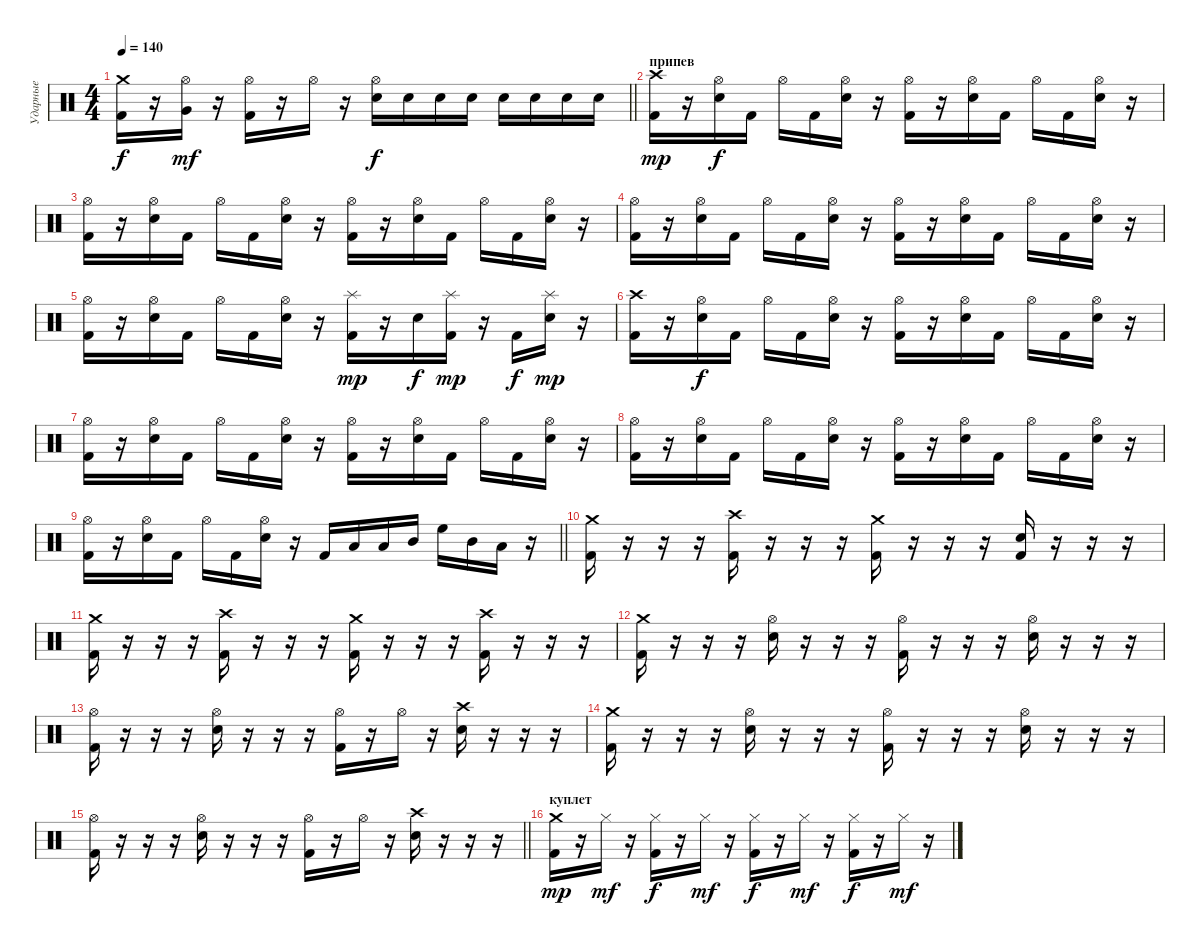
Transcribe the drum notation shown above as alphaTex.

\track ("Ударные" "Ударные") {instrument percussion}
\staff {score}
\articulation defaults
\ts (4 4)
\tempo 140
\clef neutral
\barLineRight lightlight
\ks c
("Crash medium (hit)" "Kick (hit) 2").16{dy f} r.16 ("Hi-Hat (open)" "Very Low Tom (hit)").16{dy mf} r.16 ("Hi-Hat (open)" "Kick (hit) 2").16 r.16 "Hi-Hat (open)".16 r.16 ("Hi-Hat (open)" "Electric Snare (hit)").16{dy f} "Electric Snare (hit)".16 "Electric Snare (hit)".16 "Electric Snare (hit)".16 "Electric Snare (hit)".16 "Electric Snare (hit)".16 "Electric Snare (hit)".16 "Electric Snare (hit)".16 |
\section ("" "припев")
("Crash high (hit)" "Kick (hit) 2").16{dy mp} r.16 ("Hi-Hat (open)" "Electric Snare (hit)").16{dy f} "Kick (hit) 2".16 "Hi-Hat (open)".16 "Kick (hit) 2".16 ("Hi-Hat (open)" "Electric Snare (hit)").16 r.16 ("Hi-Hat (open)" "Kick (hit) 2").16 r.16 ("Hi-Hat (open)" "Electric Snare (hit)").16 "Kick (hit) 2".16 "Hi-Hat (open)".16 "Kick (hit) 2".16 ("Hi-Hat (open)" "Electric Snare (hit)").16 r.16 |
("Hi-Hat (open)" "Kick (hit) 2").16 r.16 ("Hi-Hat (open)" "Electric Snare (hit)").16 "Kick (hit) 2".16 "Hi-Hat (open)".16 "Kick (hit) 2".16 ("Hi-Hat (open)" "Electric Snare (hit)").16 r.16 ("Hi-Hat (open)" "Kick (hit) 2").16 r.16 ("Hi-Hat (open)" "Electric Snare (hit)").16 "Kick (hit) 2".16 "Hi-Hat (open)".16 "Kick (hit) 2".16 ("Hi-Hat (open)" "Electric Snare (hit)").16 r.16 |
("Hi-Hat (open)" "Kick (hit) 2").16 r.16 ("Hi-Hat (open)" "Electric Snare (hit)").16 "Kick (hit) 2".16 "Hi-Hat (open)".16 "Kick (hit) 2".16 ("Hi-Hat (open)" "Electric Snare (hit)").16 r.16 ("Hi-Hat (open)" "Kick (hit) 2").16 r.16 ("Hi-Hat (open)" "Electric Snare (hit)").16 "Kick (hit) 2".16 "Hi-Hat (open)".16 "Kick (hit) 2".16 ("Hi-Hat (open)" "Electric Snare (hit)").16 r.16 |
("Hi-Hat (open)" "Kick (hit) 2").16 r.16 ("Hi-Hat (open)" "Electric Snare (hit)").16 "Kick (hit) 2".16 "Hi-Hat (open)".16 "Kick (hit) 2".16 ("Hi-Hat (open)" "Electric Snare (hit)").16 r.16 ("Splash (hit)" "Kick (hit) 2").16{dy mp} r.16 "Electric Snare (hit)".16{dy f} ("Splash (hit)" "Kick (hit) 2").16{dy mp} r.16 "Kick (hit) 2".16{dy f} ("Splash (hit)" "Electric Snare (hit)").16{dy mp} r.16 |
("Crash high (hit)" "Kick (hit) 2").16 r.16 ("Hi-Hat (open)" "Electric Snare (hit)").16{dy f} "Kick (hit) 2".16 "Hi-Hat (open)".16 "Kick (hit) 2".16 ("Hi-Hat (open)" "Electric Snare (hit)").16 r.16 ("Hi-Hat (open)" "Kick (hit) 2").16 r.16 ("Hi-Hat (open)" "Electric Snare (hit)").16 "Kick (hit) 2".16 "Hi-Hat (open)".16 "Kick (hit) 2".16 ("Hi-Hat (open)" "Electric Snare (hit)").16 r.16 |
("Hi-Hat (open)" "Kick (hit) 2").16 r.16 ("Hi-Hat (open)" "Electric Snare (hit)").16 "Kick (hit) 2".16 "Hi-Hat (open)".16 "Kick (hit) 2".16 ("Hi-Hat (open)" "Electric Snare (hit)").16 r.16 ("Hi-Hat (open)" "Kick (hit) 2").16 r.16 ("Hi-Hat (open)" "Electric Snare (hit)").16 "Kick (hit) 2".16 "Hi-Hat (open)".16 "Kick (hit) 2".16 ("Hi-Hat (open)" "Electric Snare (hit)").16 r.16 |
("Hi-Hat (open)" "Kick (hit) 2").16 r.16 ("Hi-Hat (open)" "Electric Snare (hit)").16 "Kick (hit) 2".16 "Hi-Hat (open)".16 "Kick (hit) 2".16 ("Hi-Hat (open)" "Electric Snare (hit)").16 r.16 ("Hi-Hat (open)" "Kick (hit) 2").16 r.16 ("Hi-Hat (open)" "Electric Snare (hit)").16 "Kick (hit) 2".16 "Hi-Hat (open)".16 "Kick (hit) 2".16 ("Hi-Hat (open)" "Electric Snare (hit)").16 r.16 |
\barLineRight lightlight
("Hi-Hat (open)" "Kick (hit) 2").16 r.16 ("Hi-Hat (open)" "Electric Snare (hit)").16 "Kick (hit) 2".16 "Hi-Hat (open)".16 "Kick (hit) 2".16 ("Hi-Hat (open)" "Electric Snare (hit)").16 r.16 "Kick (hit) 2".16 "Low Tom (hit)".16 "Low Tom (hit)".16 "Mid Tom (hit)".16 "High Floor Tom (hit)".16 "Mid Tom (hit)".16 "Low Tom (hit)".16 r.16 |
("Crash medium (hit)" "Kick (hit) 2").16 r.16 r.16 r.16 ("Crash high (hit)" "Kick (hit) 2").16 r.16 r.16 r.16 ("Crash medium (hit)" "Kick (hit) 2").16 r.16 r.16 r.16 ("Electric Snare (hit)" "Kick (hit) 2").16 r.16 r.16 r.16 |
("Crash medium (hit)" "Kick (hit) 2").16 r.16 r.16 r.16 ("Crash high (hit)" "Kick (hit) 2").16 r.16 r.16 r.16 ("Crash medium (hit)" "Kick (hit) 2").16 r.16 r.16 r.16 ("Crash high (hit)" "Kick (hit) 2").16 r.16 r.16 r.16 |
("Crash medium (hit)" "Kick (hit) 2").16 r.16 r.16 r.16 ("Hi-Hat (open)" "Electric Snare (hit)").16 r.16 r.16 r.16 ("Hi-Hat (open)" "Kick (hit) 2").16 r.16 r.16 r.16 ("Hi-Hat (open)" "Electric Snare (hit)").16 r.16 r.16 r.16 |
("Hi-Hat (open)" "Kick (hit) 2").16 r.16 r.16 r.16 ("Hi-Hat (open)" "Electric Snare (hit)").16 r.16 r.16 r.16 ("Hi-Hat (open)" "Kick (hit) 2").16 r.16 "Hi-Hat (open)".16 r.16 ("Crash high (hit)" "Electric Snare (hit)").16 r.16 r.16 r.16 |
("Crash medium (hit)" "Kick (hit) 2").16 r.16 r.16 r.16 ("Hi-Hat (open)" "Electric Snare (hit)").16 r.16 r.16 r.16 ("Hi-Hat (open)" "Kick (hit) 2").16 r.16 r.16 r.16 ("Hi-Hat (open)" "Electric Snare (hit)").16 r.16 r.16 r.16 |
\barLineRight lightlight
("Hi-Hat (open)" "Kick (hit) 2").16 r.16 r.16 r.16 ("Hi-Hat (open)" "Electric Snare (hit)").16 r.16 r.16 r.16 ("Hi-Hat (open)" "Kick (hit) 2").16 r.16 "Hi-Hat (open)".16 r.16 ("Crash high (hit)" "Electric Snare (hit)").16 r.16 r.16 r.16 |
\section ("" "куплет")
("Crash medium (hit)" "Kick (hit) 2").16{dy mp} r.16 "Hi-Hat (closed)".16{dy mf} r.16 ("Hi-Hat (closed)" "Kick (hit) 2").16{dy f} r.16 "Hi-Hat (closed)".16{dy mf} r.16 ("Hi-Hat (closed)" "Kick (hit) 2").16{dy f} r.16 "Hi-Hat (closed)".16{dy mf} r.16 ("Hi-Hat (closed)" "Kick (hit) 2").16{dy f} r.16 "Hi-Hat (closed)".16{dy mf} r.16
